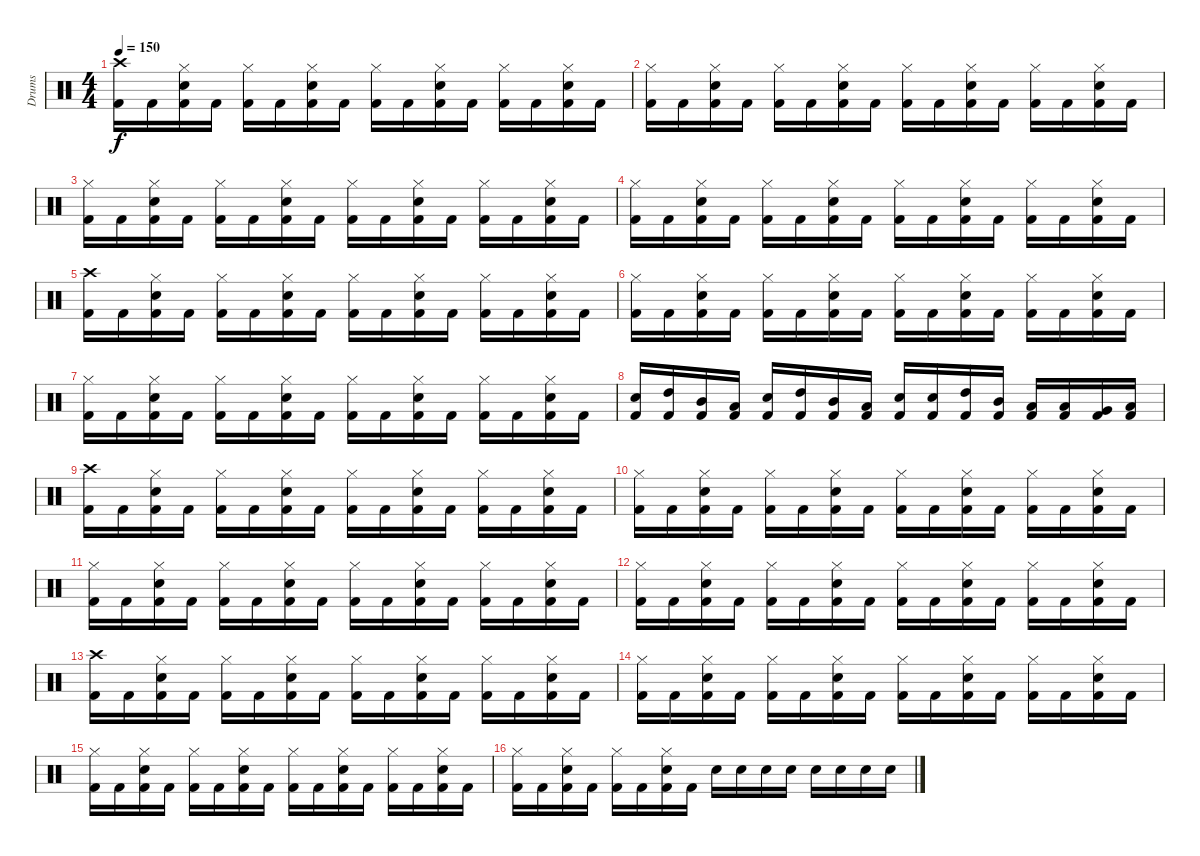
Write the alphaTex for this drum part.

\track ("Drums" "Drums") {instrument percussion}
\staff {score}
\articulation defaults
\ts (4 4)
\tempo 150
\clef neutral
\ks c
("Crash high (hit)" "Kick (hit) 2").16{dy f} "Kick (hit) 2".16 ("Hi-Hat (closed)" "Electric Snare (hit)" "Kick (hit) 2").16 "Kick (hit) 2".16 ("Hi-Hat (closed)" "Kick (hit) 2").16 "Kick (hit) 2".16 ("Hi-Hat (closed)" "Electric Snare (hit)" "Kick (hit) 2").16 "Kick (hit) 2".16 ("Hi-Hat (closed)" "Kick (hit) 2").16 "Kick (hit) 2".16 ("Hi-Hat (closed)" "Electric Snare (hit)" "Kick (hit) 2").16 "Kick (hit) 2".16 ("Hi-Hat (closed)" "Kick (hit) 2").16 "Kick (hit) 2".16 ("Hi-Hat (closed)" "Electric Snare (hit)" "Kick (hit) 2").16 "Kick (hit) 2".16 |
("Hi-Hat (closed)" "Kick (hit) 2").16 "Kick (hit) 2".16 ("Hi-Hat (closed)" "Electric Snare (hit)" "Kick (hit) 2").16 "Kick (hit) 2".16 ("Hi-Hat (closed)" "Kick (hit) 2").16 "Kick (hit) 2".16 ("Hi-Hat (closed)" "Electric Snare (hit)" "Kick (hit) 2").16 "Kick (hit) 2".16 ("Hi-Hat (closed)" "Kick (hit) 2").16 "Kick (hit) 2".16 ("Hi-Hat (closed)" "Electric Snare (hit)" "Kick (hit) 2").16 "Kick (hit) 2".16 ("Hi-Hat (closed)" "Kick (hit) 2").16 "Kick (hit) 2".16 ("Hi-Hat (closed)" "Electric Snare (hit)" "Kick (hit) 2").16 "Kick (hit) 2".16 |
("Hi-Hat (closed)" "Kick (hit) 2").16 "Kick (hit) 2".16 ("Hi-Hat (closed)" "Electric Snare (hit)" "Kick (hit) 2").16 "Kick (hit) 2".16 ("Hi-Hat (closed)" "Kick (hit) 2").16 "Kick (hit) 2".16 ("Hi-Hat (closed)" "Electric Snare (hit)" "Kick (hit) 2").16 "Kick (hit) 2".16 ("Hi-Hat (closed)" "Kick (hit) 2").16 "Kick (hit) 2".16 ("Hi-Hat (closed)" "Electric Snare (hit)" "Kick (hit) 2").16 "Kick (hit) 2".16 ("Hi-Hat (closed)" "Kick (hit) 2").16 "Kick (hit) 2".16 ("Hi-Hat (closed)" "Electric Snare (hit)" "Kick (hit) 2").16 "Kick (hit) 2".16 |
("Hi-Hat (closed)" "Kick (hit) 2").16 "Kick (hit) 2".16 ("Hi-Hat (closed)" "Electric Snare (hit)" "Kick (hit) 2").16 "Kick (hit) 2".16 ("Hi-Hat (closed)" "Kick (hit) 2").16 "Kick (hit) 2".16 ("Hi-Hat (closed)" "Electric Snare (hit)" "Kick (hit) 2").16 "Kick (hit) 2".16 ("Hi-Hat (closed)" "Kick (hit) 2").16 "Kick (hit) 2".16 ("Hi-Hat (closed)" "Electric Snare (hit)" "Kick (hit) 2").16 "Kick (hit) 2".16 ("Hi-Hat (closed)" "Kick (hit) 2").16 "Kick (hit) 2".16 ("Hi-Hat (closed)" "Electric Snare (hit)" "Kick (hit) 2").16 "Kick (hit) 2".16 |
("Crash high (hit)" "Kick (hit) 2").16 "Kick (hit) 2".16 ("Hi-Hat (closed)" "Electric Snare (hit)" "Kick (hit) 2").16 "Kick (hit) 2".16 ("Hi-Hat (closed)" "Kick (hit) 2").16 "Kick (hit) 2".16 ("Hi-Hat (closed)" "Electric Snare (hit)" "Kick (hit) 2").16 "Kick (hit) 2".16 ("Hi-Hat (closed)" "Kick (hit) 2").16 "Kick (hit) 2".16 ("Hi-Hat (closed)" "Electric Snare (hit)" "Kick (hit) 2").16 "Kick (hit) 2".16 ("Hi-Hat (closed)" "Kick (hit) 2").16 "Kick (hit) 2".16 ("Hi-Hat (closed)" "Electric Snare (hit)" "Kick (hit) 2").16 "Kick (hit) 2".16 |
("Hi-Hat (closed)" "Kick (hit) 2").16 "Kick (hit) 2".16 ("Hi-Hat (closed)" "Electric Snare (hit)" "Kick (hit) 2").16 "Kick (hit) 2".16 ("Hi-Hat (closed)" "Kick (hit) 2").16 "Kick (hit) 2".16 ("Hi-Hat (closed)" "Electric Snare (hit)" "Kick (hit) 2").16 "Kick (hit) 2".16 ("Hi-Hat (closed)" "Kick (hit) 2").16 "Kick (hit) 2".16 ("Hi-Hat (closed)" "Electric Snare (hit)" "Kick (hit) 2").16 "Kick (hit) 2".16 ("Hi-Hat (closed)" "Kick (hit) 2").16 "Kick (hit) 2".16 ("Hi-Hat (closed)" "Electric Snare (hit)" "Kick (hit) 2").16 "Kick (hit) 2".16 |
("Hi-Hat (closed)" "Kick (hit) 2").16 "Kick (hit) 2".16 ("Hi-Hat (closed)" "Electric Snare (hit)" "Kick (hit) 2").16 "Kick (hit) 2".16 ("Hi-Hat (closed)" "Kick (hit) 2").16 "Kick (hit) 2".16 ("Hi-Hat (closed)" "Electric Snare (hit)" "Kick (hit) 2").16 "Kick (hit) 2".16 ("Hi-Hat (closed)" "Kick (hit) 2").16 "Kick (hit) 2".16 ("Hi-Hat (closed)" "Electric Snare (hit)" "Kick (hit) 2").16 "Kick (hit) 2".16 ("Hi-Hat (closed)" "Kick (hit) 2").16 "Kick (hit) 2".16 ("Hi-Hat (closed)" "Electric Snare (hit)" "Kick (hit) 2").16 "Kick (hit) 2".16 |
("Electric Snare (hit)" "Kick (hit) 2").16 ("High Tom (hit)" "Kick (hit) 2").16 ("Mid Tom (hit)" "Kick (hit) 2").16 ("Low Tom (hit)" "Kick (hit) 2").16 ("Electric Snare (hit)" "Kick (hit) 2").16 ("High Tom (hit)" "Kick (hit) 2").16 ("Mid Tom (hit)" "Kick (hit) 2").16 ("Low Tom (hit)" "Kick (hit) 2").16 ("Electric Snare (hit)" "Kick (hit) 2").16 ("Electric Snare (hit)" "Kick (hit) 2").16 ("High Tom (hit)" "Kick (hit) 2").16 ("Mid Tom (hit)" "Kick (hit) 2").16 ("Low Tom (hit)" "Kick (hit) 2").16 ("Low Tom (hit)" "Kick (hit) 2").16 ("Very Low Tom (hit)" "Kick (hit) 2").16 ("Low Floor Tom (hit)" "Kick (hit) 2").16 |
("Crash high (hit)" "Kick (hit) 2").16 "Kick (hit) 2".16 ("Hi-Hat (closed)" "Electric Snare (hit)" "Kick (hit) 2").16 "Kick (hit) 2".16 ("Hi-Hat (closed)" "Kick (hit) 2").16 "Kick (hit) 2".16 ("Hi-Hat (closed)" "Electric Snare (hit)" "Kick (hit) 2").16 "Kick (hit) 2".16 ("Hi-Hat (closed)" "Kick (hit) 2").16 "Kick (hit) 2".16 ("Hi-Hat (closed)" "Electric Snare (hit)" "Kick (hit) 2").16 "Kick (hit) 2".16 ("Hi-Hat (closed)" "Kick (hit) 2").16 "Kick (hit) 2".16 ("Hi-Hat (closed)" "Electric Snare (hit)" "Kick (hit) 2").16 "Kick (hit) 2".16 |
("Hi-Hat (closed)" "Kick (hit) 2").16 "Kick (hit) 2".16 ("Hi-Hat (closed)" "Electric Snare (hit)" "Kick (hit) 2").16 "Kick (hit) 2".16 ("Hi-Hat (closed)" "Kick (hit) 2").16 "Kick (hit) 2".16 ("Hi-Hat (closed)" "Electric Snare (hit)" "Kick (hit) 2").16 "Kick (hit) 2".16 ("Hi-Hat (closed)" "Kick (hit) 2").16 "Kick (hit) 2".16 ("Hi-Hat (closed)" "Electric Snare (hit)" "Kick (hit) 2").16 "Kick (hit) 2".16 ("Hi-Hat (closed)" "Kick (hit) 2").16 "Kick (hit) 2".16 ("Hi-Hat (closed)" "Electric Snare (hit)" "Kick (hit) 2").16 "Kick (hit) 2".16 |
("Hi-Hat (closed)" "Kick (hit) 2").16 "Kick (hit) 2".16 ("Hi-Hat (closed)" "Electric Snare (hit)" "Kick (hit) 2").16 "Kick (hit) 2".16 ("Hi-Hat (closed)" "Kick (hit) 2").16 "Kick (hit) 2".16 ("Hi-Hat (closed)" "Electric Snare (hit)" "Kick (hit) 2").16 "Kick (hit) 2".16 ("Hi-Hat (closed)" "Kick (hit) 2").16 "Kick (hit) 2".16 ("Hi-Hat (closed)" "Electric Snare (hit)" "Kick (hit) 2").16 "Kick (hit) 2".16 ("Hi-Hat (closed)" "Kick (hit) 2").16 "Kick (hit) 2".16 ("Hi-Hat (closed)" "Electric Snare (hit)" "Kick (hit) 2").16 "Kick (hit) 2".16 |
("Hi-Hat (closed)" "Kick (hit) 2").16 "Kick (hit) 2".16 ("Hi-Hat (closed)" "Electric Snare (hit)" "Kick (hit) 2").16 "Kick (hit) 2".16 ("Hi-Hat (closed)" "Kick (hit) 2").16 "Kick (hit) 2".16 ("Hi-Hat (closed)" "Electric Snare (hit)" "Kick (hit) 2").16 "Kick (hit) 2".16 ("Hi-Hat (closed)" "Kick (hit) 2").16 "Kick (hit) 2".16 ("Hi-Hat (closed)" "Electric Snare (hit)" "Kick (hit) 2").16 "Kick (hit) 2".16 ("Hi-Hat (closed)" "Kick (hit) 2").16 "Kick (hit) 2".16 ("Hi-Hat (closed)" "Electric Snare (hit)" "Kick (hit) 2").16 "Kick (hit) 2".16 |
("Crash high (hit)" "Kick (hit) 2").16 "Kick (hit) 2".16 ("Hi-Hat (closed)" "Electric Snare (hit)" "Kick (hit) 2").16 "Kick (hit) 2".16 ("Hi-Hat (closed)" "Kick (hit) 2").16 "Kick (hit) 2".16 ("Hi-Hat (closed)" "Electric Snare (hit)" "Kick (hit) 2").16 "Kick (hit) 2".16 ("Hi-Hat (closed)" "Kick (hit) 2").16 "Kick (hit) 2".16 ("Hi-Hat (closed)" "Electric Snare (hit)" "Kick (hit) 2").16 "Kick (hit) 2".16 ("Hi-Hat (closed)" "Kick (hit) 2").16 "Kick (hit) 2".16 ("Hi-Hat (closed)" "Electric Snare (hit)" "Kick (hit) 2").16 "Kick (hit) 2".16 |
("Hi-Hat (closed)" "Kick (hit) 2").16 "Kick (hit) 2".16 ("Hi-Hat (closed)" "Electric Snare (hit)" "Kick (hit) 2").16 "Kick (hit) 2".16 ("Hi-Hat (closed)" "Kick (hit) 2").16 "Kick (hit) 2".16 ("Hi-Hat (closed)" "Electric Snare (hit)" "Kick (hit) 2").16 "Kick (hit) 2".16 ("Hi-Hat (closed)" "Kick (hit) 2").16 "Kick (hit) 2".16 ("Hi-Hat (closed)" "Electric Snare (hit)" "Kick (hit) 2").16 "Kick (hit) 2".16 ("Hi-Hat (closed)" "Kick (hit) 2").16 "Kick (hit) 2".16 ("Hi-Hat (closed)" "Electric Snare (hit)" "Kick (hit) 2").16 "Kick (hit) 2".16 |
("Hi-Hat (closed)" "Kick (hit) 2").16 "Kick (hit) 2".16 ("Hi-Hat (closed)" "Electric Snare (hit)" "Kick (hit) 2").16 "Kick (hit) 2".16 ("Hi-Hat (closed)" "Kick (hit) 2").16 "Kick (hit) 2".16 ("Hi-Hat (closed)" "Electric Snare (hit)" "Kick (hit) 2").16 "Kick (hit) 2".16 ("Hi-Hat (closed)" "Kick (hit) 2").16 "Kick (hit) 2".16 ("Hi-Hat (closed)" "Electric Snare (hit)" "Kick (hit) 2").16 "Kick (hit) 2".16 ("Hi-Hat (closed)" "Kick (hit) 2").16 "Kick (hit) 2".16 ("Hi-Hat (closed)" "Electric Snare (hit)" "Kick (hit) 2").16 "Kick (hit) 2".16 |
("Hi-Hat (closed)" "Kick (hit) 2").16 "Kick (hit) 2".16 ("Hi-Hat (closed)" "Electric Snare (hit)" "Kick (hit) 2").16 "Kick (hit) 2".16 ("Hi-Hat (closed)" "Kick (hit) 2").16 "Kick (hit) 2".16 ("Hi-Hat (closed)" "Electric Snare (hit)" "Kick (hit) 2").16 "Kick (hit) 2".16 "Electric Snare (hit)".16 "Electric Snare (hit)".16 "Electric Snare (hit)".16 "Electric Snare (hit)".16 "Electric Snare (hit)".16 "Electric Snare (hit)".16 "Electric Snare (hit)".16 "Electric Snare (hit)".16
